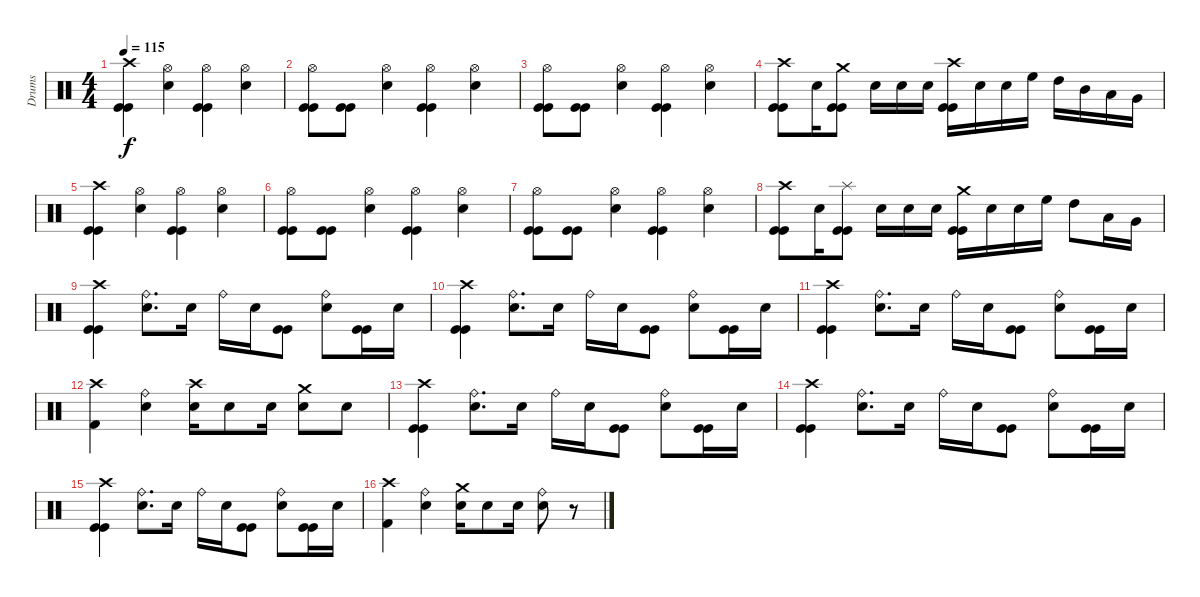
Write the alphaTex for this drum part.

\track ("Drums" "Drums") {instrument percussion}
\staff {score}
\articulation defaults
\ts (4 4)
\tempo 115
\clef neutral
\ks c
("Kick (hit)" "Kick (hit)" "Crash high (hit)").4{dy f} ("Snare (hit) 2" "Hi-Hat (open)").4 ("Kick (hit)" "Kick (hit)" "Hi-Hat (open)").4 ("Snare (hit) 2" "Hi-Hat (open)").4 |
("Kick (hit)" "Kick (hit)" "Hi-Hat (open)").8 ("Kick (hit)" "Kick (hit)").8 ("Snare (hit) 2" "Hi-Hat (open)").4 ("Kick (hit)" "Kick (hit)" "Hi-Hat (open)").4 ("Snare (hit) 2" "Hi-Hat (open)").4 |
("Kick (hit)" "Kick (hit)" "Hi-Hat (open)").8 ("Kick (hit)" "Kick (hit)").8 ("Snare (hit) 2" "Hi-Hat (open)").4 ("Kick (hit)" "Kick (hit)" "Hi-Hat (open)").4 ("Snare (hit) 2" "Hi-Hat (open)").4 |
("Kick (hit)" "Kick (hit)" "Crash high (hit)").8 "Snare (hit) 2".16 ("Kick (hit)" "Kick (hit)" "Crash medium (hit)").8 "Snare (hit) 2".16 "Snare (hit) 2".16 "Snare (hit) 2".16 ("Kick (hit)" "Kick (hit)" "Crash high (hit)").16 "Snare (hit) 2".16 "Snare (hit) 2".16 "High Floor Tom (hit)".16 "High Tom (hit)".16 "Mid Tom (hit)".16 "Low Tom (hit)".16 "Very Low Tom (hit)".16 |
("Kick (hit)" "Kick (hit)" "Crash high (hit)").4 ("Snare (hit) 2" "Hi-Hat (open)").4 ("Kick (hit)" "Kick (hit)" "Hi-Hat (open)").4 ("Snare (hit) 2" "Hi-Hat (open)").4 |
("Kick (hit)" "Kick (hit)" "Hi-Hat (open)").8 ("Kick (hit)" "Kick (hit)").8 ("Snare (hit) 2" "Hi-Hat (open)").4 ("Kick (hit)" "Kick (hit)" "Hi-Hat (open)").4 ("Snare (hit) 2" "Hi-Hat (open)").4 |
("Kick (hit)" "Kick (hit)" "Hi-Hat (open)").8 ("Kick (hit)" "Kick (hit)").8 ("Snare (hit) 2" "Hi-Hat (open)").4 ("Kick (hit)" "Kick (hit)" "Hi-Hat (open)").4 ("Snare (hit) 2" "Hi-Hat (open)").4 |
("Kick (hit)" "Kick (hit)" "Crash high (hit)").8 "Snare (hit) 2".16 ("Kick (hit)" "Kick (hit)" "Splash (hit)").8 "Snare (hit) 2".16 "Snare (hit) 2".16 "Snare (hit) 2".16 ("Kick (hit)" "Kick (hit)" "Crash medium (hit)").16 "Snare (hit) 2".16 "Snare (hit) 2".16 "High Floor Tom (hit)".16 "High Tom (hit)".8 "Low Tom (hit)".16 "Very Low Tom (hit)".16 |
("Kick (hit)" "Kick (hit)" "Crash high (hit)").4 ("Snare (hit) 2" "Ride (bell)").8{d} "Snare (hit) 2".16 "Ride (bell)".16 "Snare (hit) 2".16 ("Kick (hit)" "Kick (hit)").8 ("Snare (hit) 2" "Ride (bell)").8 ("Kick (hit)" "Kick (hit)").16 "Snare (hit) 2".16 |
("Kick (hit)" "Kick (hit)" "Crash high (hit)").4 ("Snare (hit) 2" "Ride (bell)").8{d} "Snare (hit) 2".16 "Ride (bell)".16 "Snare (hit) 2".16 ("Kick (hit)" "Kick (hit)").8 ("Snare (hit) 2" "Ride (bell)").8 ("Kick (hit)" "Kick (hit)").16 "Snare (hit) 2".16 |
("Kick (hit)" "Kick (hit)" "Crash high (hit)").4 ("Snare (hit) 2" "Ride (bell)").8{d} "Snare (hit) 2".16 "Ride (bell)".16 "Snare (hit) 2".16 ("Kick (hit)" "Kick (hit)").8 ("Snare (hit) 2" "Ride (bell)").8 ("Kick (hit)" "Kick (hit)").16 "Snare (hit) 2".16 |
("Kick (hit) 2" "Crash high (hit)").4 ("Snare (hit) 2" "Ride (bell)").4 ("Snare (hit) 2" "Crash high (hit)").16 "Snare (hit) 2".8 "Snare (hit) 2".16 ("Snare (hit) 2" "Crash medium (hit)").8 "Snare (hit) 2".8 |
("Kick (hit)" "Kick (hit)" "Crash high (hit)").4 ("Snare (hit) 2" "Ride (bell)").8{d} "Snare (hit) 2".16 "Ride (bell)".16 "Snare (hit) 2".16 ("Kick (hit)" "Kick (hit)").8 ("Snare (hit) 2" "Ride (bell)").8 ("Kick (hit)" "Kick (hit)").16 "Snare (hit) 2".16 |
("Kick (hit)" "Kick (hit)" "Crash high (hit)").4 ("Snare (hit) 2" "Ride (bell)").8{d} "Snare (hit) 2".16 "Ride (bell)".16 "Snare (hit) 2".16 ("Kick (hit)" "Kick (hit)").8 ("Snare (hit) 2" "Ride (bell)").8 ("Kick (hit)" "Kick (hit)").16 "Snare (hit) 2".16 |
("Kick (hit)" "Kick (hit)" "Crash high (hit)").4 ("Snare (hit) 2" "Ride (bell)").8{d} "Snare (hit) 2".16 "Ride (bell)".16 "Snare (hit) 2".16 ("Kick (hit)" "Kick (hit)").8 ("Snare (hit) 2" "Ride (bell)").8 ("Kick (hit)" "Kick (hit)").16 "Snare (hit) 2".16 |
("Kick (hit) 2" "Crash high (hit)").4 ("Snare (hit) 2" "Ride (bell)").4 ("Snare (hit) 2" "Crash medium (hit)").16 "Snare (hit) 2".8 "Snare (hit) 2".16 ("Snare (hit) 2" "Ride (bell)").8 r.8
